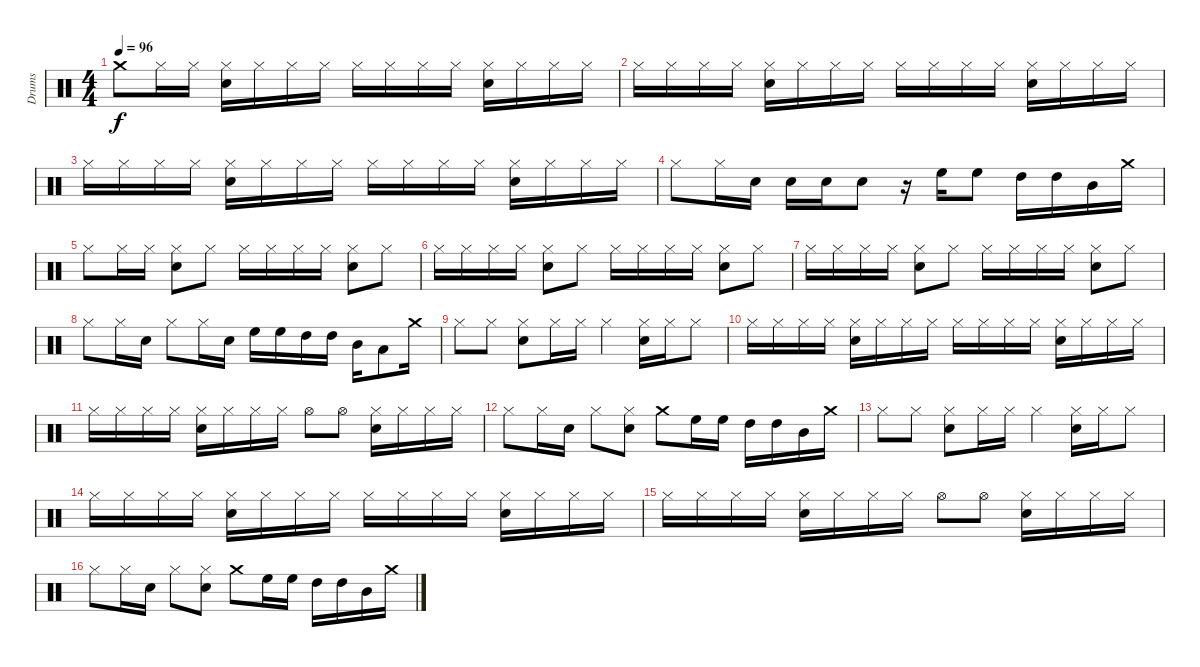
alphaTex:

\track ("Drums" "Drums") {instrument percussion}
\staff {score}
\articulation defaults
\ts (4 4)
\tempo 96
\clef neutral
\ks c "Crash medium (hit)".8{dy f} "Hi-Hat (closed)".16 "Hi-Hat (closed)".16
("Hi-Hat (closed)" "Electric Snare (hit)").16 "Hi-Hat (closed)".16 "Hi-Hat (closed)".16 "Hi-Hat (closed)".16 "Hi-Hat (closed)".16 "Hi-Hat (closed)".16 "Hi-Hat (closed)".16 "Hi-Hat (closed)".16 ("Hi-Hat (closed)" "Electric Snare (hit)").16 "Hi-Hat (closed)".16 "Hi-Hat (closed)".16 "Hi-Hat (closed)".16 |
"Hi-Hat (closed)".16 "Hi-Hat (closed)".16 "Hi-Hat (closed)".16 "Hi-Hat (closed)".16 ("Hi-Hat (closed)" "Electric Snare (hit)").16 "Hi-Hat (closed)".16 "Hi-Hat (closed)".16 "Hi-Hat (closed)".16 "Hi-Hat (closed)".16 "Hi-Hat (closed)".16 "Hi-Hat (closed)".16 "Hi-Hat (closed)".16 ("Hi-Hat (closed)" "Electric Snare (hit)").16 "Hi-Hat (closed)".16 "Hi-Hat (closed)".16 "Hi-Hat (closed)".16 |
"Hi-Hat (closed)".16 "Hi-Hat (closed)".16 "Hi-Hat (closed)".16 "Hi-Hat (closed)".16 ("Hi-Hat (closed)" "Electric Snare (hit)").16 "Hi-Hat (closed)".16 "Hi-Hat (closed)".16 "Hi-Hat (closed)".16 "Hi-Hat (closed)".16 "Hi-Hat (closed)".16 "Hi-Hat (closed)".16 "Hi-Hat (closed)".16 ("Hi-Hat (closed)" "Electric Snare (hit)").16 "Hi-Hat (closed)".16 "Hi-Hat (closed)".16 "Hi-Hat (closed)".16 |
"Hi-Hat (closed)".8 "Hi-Hat (closed)".16 "Electric Snare (hit)".16 "Electric Snare (hit)".16 "Electric Snare (hit)".16 "Electric Snare (hit)".8 r.16 "High Floor Tom (hit)".16 "High Floor Tom (hit)".8 "High Tom (hit)".16 "High Tom (hit)".16 "Mid Tom (hit)".16 "Crash medium (hit)".16 |
"Hi-Hat (closed)".8 "Hi-Hat (closed)".16 "Hi-Hat (closed)".16 ("Hi-Hat (closed)" "Electric Snare (hit)").8 "Hi-Hat (closed)".8 "Hi-Hat (closed)".16 "Hi-Hat (closed)".16 "Hi-Hat (closed)".16 "Hi-Hat (closed)".16 ("Hi-Hat (closed)" "Electric Snare (hit)").8 "Hi-Hat (closed)".8 |
"Hi-Hat (closed)".16 "Hi-Hat (closed)".16 "Hi-Hat (closed)".16 "Hi-Hat (closed)".16 ("Hi-Hat (closed)" "Electric Snare (hit)").8 "Hi-Hat (closed)".8 "Hi-Hat (closed)".16 "Hi-Hat (closed)".16 "Hi-Hat (closed)".16 "Hi-Hat (closed)".16 ("Hi-Hat (closed)" "Electric Snare (hit)").8 "Hi-Hat (closed)".8 |
"Hi-Hat (closed)".16 "Hi-Hat (closed)".16 "Hi-Hat (closed)".16 "Hi-Hat (closed)".16 ("Hi-Hat (closed)" "Electric Snare (hit)").8 "Hi-Hat (closed)".8 "Hi-Hat (closed)".16 "Hi-Hat (closed)".16 "Hi-Hat (closed)".16 "Hi-Hat (closed)".16 ("Hi-Hat (closed)" "Electric Snare (hit)").8 "Hi-Hat (closed)".8 |
"Hi-Hat (closed)".8 "Hi-Hat (closed)".16 "Electric Snare (hit)".16 "Hi-Hat (closed)".8 "Hi-Hat (closed)".16 "Electric Snare (hit)".16 "High Floor Tom (hit)".16 "High Floor Tom (hit)".16 "High Tom (hit)".16 "High Tom (hit)".16 "Mid Tom (hit)".16 "Low Tom (hit)".8 "Crash medium (hit)".16 |
"Hi-Hat (closed)".8 "Hi-Hat (closed)".8 ("Hi-Hat (closed)" "Electric Snare (hit)").8 "Hi-Hat (closed)".16 "Hi-Hat (closed)".16 "Hi-Hat (closed)".4 ("Hi-Hat (closed)" "Electric Snare (hit)").16 "Hi-Hat (closed)".16 "Hi-Hat (closed)".8 |
"Hi-Hat (closed)".16 "Hi-Hat (closed)".16 "Hi-Hat (closed)".16 "Hi-Hat (closed)".16 ("Hi-Hat (closed)" "Electric Snare (hit)").16 "Hi-Hat (closed)".16 "Hi-Hat (closed)".16 "Hi-Hat (closed)".16 "Hi-Hat (closed)".16 "Hi-Hat (closed)".16 "Hi-Hat (closed)".16 "Hi-Hat (closed)".16 ("Hi-Hat (closed)" "Electric Snare (hit)").16 "Hi-Hat (closed)".16 "Hi-Hat (closed)".16 "Hi-Hat (closed)".16 |
"Hi-Hat (closed)".16 "Hi-Hat (closed)".16 "Hi-Hat (closed)".16 "Hi-Hat (closed)".16 ("Hi-Hat (closed)" "Electric Snare (hit)").16 "Hi-Hat (closed)".16 "Hi-Hat (closed)".16 "Hi-Hat (closed)".16 "Hi-Hat (open)".8 "Hi-Hat (open)".8 ("Hi-Hat (closed)" "Electric Snare (hit)").16 "Hi-Hat (closed)".16 "Hi-Hat (closed)".16 "Hi-Hat (closed)".16 |
"Hi-Hat (closed)".8 "Hi-Hat (closed)".16 "Electric Snare (hit)".16 "Hi-Hat (closed)".8 ("Hi-Hat (closed)" "Electric Snare (hit)").8 "Crash medium (hit)".8 "High Floor Tom (hit)".16 "High Floor Tom (hit)".16 "High Tom (hit)".16 "High Tom (hit)".16 "Mid Tom (hit)".16 "Crash medium (hit)".16 |
"Hi-Hat (closed)".8 "Hi-Hat (closed)".8 ("Hi-Hat (closed)" "Electric Snare (hit)").8 "Hi-Hat (closed)".16 "Hi-Hat (closed)".16 "Hi-Hat (closed)".4 ("Hi-Hat (closed)" "Electric Snare (hit)").16 "Hi-Hat (closed)".16 "Hi-Hat (closed)".8 |
"Hi-Hat (closed)".16 "Hi-Hat (closed)".16 "Hi-Hat (closed)".16 "Hi-Hat (closed)".16 ("Hi-Hat (closed)" "Electric Snare (hit)").16 "Hi-Hat (closed)".16 "Hi-Hat (closed)".16 "Hi-Hat (closed)".16 "Hi-Hat (closed)".16 "Hi-Hat (closed)".16 "Hi-Hat (closed)".16 "Hi-Hat (closed)".16 ("Hi-Hat (closed)" "Electric Snare (hit)").16 "Hi-Hat (closed)".16 "Hi-Hat (closed)".16 "Hi-Hat (closed)".16 |
"Hi-Hat (closed)".16 "Hi-Hat (closed)".16 "Hi-Hat (closed)".16 "Hi-Hat (closed)".16 ("Hi-Hat (closed)" "Electric Snare (hit)").16 "Hi-Hat (closed)".16 "Hi-Hat (closed)".16 "Hi-Hat (closed)".16 "Hi-Hat (open)".8 "Hi-Hat (open)".8 ("Hi-Hat (closed)" "Electric Snare (hit)").16 "Hi-Hat (closed)".16 "Hi-Hat (closed)".16 "Hi-Hat (closed)".16 |
"Hi-Hat (closed)".8 "Hi-Hat (closed)".16 "Electric Snare (hit)".16 "Hi-Hat (closed)".8 ("Hi-Hat (closed)" "Electric Snare (hit)").8 "Crash medium (hit)".8 "High Floor Tom (hit)".16 "High Floor Tom (hit)".16 "High Tom (hit)".16 "High Tom (hit)".16 "Mid Tom (hit)".16 "Crash medium (hit)".16
